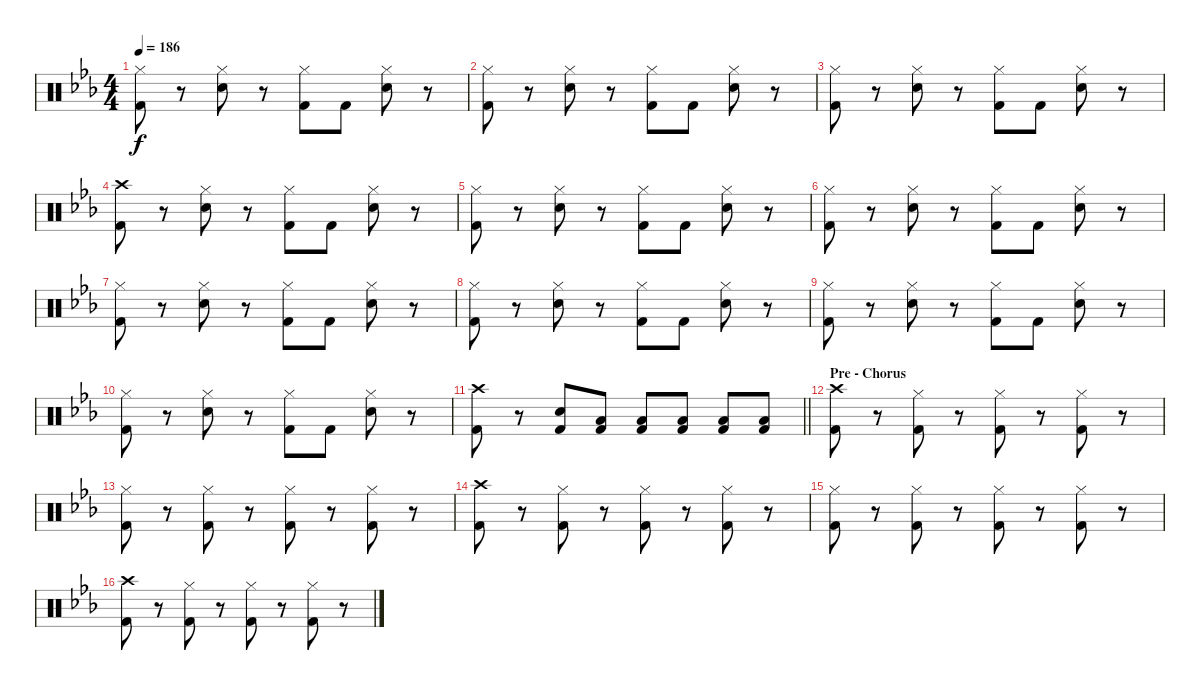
\track "" {instrument percussion}
\staff {score}
\articulation defaults
\ts (4 4)
\tempo 186
\clef neutral
\ks eb
("Hi-Hat (closed)" "Kick (hit) 2").8{dy f} r.8 ("Hi-Hat (closed)" "Snare (hit) 2").8 r.8 ("Hi-Hat (closed)" "Kick (hit) 2").8 "Kick (hit) 2".8 ("Hi-Hat (closed)" "Snare (hit) 2").8 r.8 |
("Hi-Hat (closed)" "Kick (hit) 2").8 r.8 ("Hi-Hat (closed)" "Snare (hit) 2").8 r.8 ("Hi-Hat (closed)" "Kick (hit) 2").8 "Kick (hit) 2".8 ("Hi-Hat (closed)" "Snare (hit) 2").8 r.8 |
("Hi-Hat (closed)" "Kick (hit) 2").8 r.8 ("Hi-Hat (closed)" "Snare (hit) 2").8 r.8 ("Hi-Hat (closed)" "Kick (hit) 2").8 "Kick (hit) 2".8 ("Hi-Hat (closed)" "Snare (hit) 2").8 r.8 |
("Crash high (hit)" "Kick (hit) 2").8 r.8 ("Hi-Hat (closed)" "Snare (hit) 2").8 r.8 ("Hi-Hat (closed)" "Kick (hit) 2").8 "Kick (hit) 2".8 ("Hi-Hat (closed)" "Snare (hit) 2").8 r.8 |
("Hi-Hat (closed)" "Kick (hit) 2").8 r.8 ("Hi-Hat (closed)" "Snare (hit) 2").8 r.8 ("Hi-Hat (closed)" "Kick (hit) 2").8 "Kick (hit) 2".8 ("Hi-Hat (closed)" "Snare (hit) 2").8 r.8 |
("Hi-Hat (closed)" "Kick (hit) 2").8 r.8 ("Hi-Hat (closed)" "Snare (hit) 2").8 r.8 ("Hi-Hat (closed)" "Kick (hit) 2").8 "Kick (hit) 2".8 ("Hi-Hat (closed)" "Snare (hit) 2").8 r.8 |
("Hi-Hat (closed)" "Kick (hit) 2").8 r.8 ("Hi-Hat (closed)" "Snare (hit) 2").8 r.8 ("Hi-Hat (closed)" "Kick (hit) 2").8 "Kick (hit) 2".8 ("Hi-Hat (closed)" "Snare (hit) 2").8 r.8 |
("Hi-Hat (closed)" "Kick (hit) 2").8 r.8 ("Hi-Hat (closed)" "Snare (hit) 2").8 r.8 ("Hi-Hat (closed)" "Kick (hit) 2").8 "Kick (hit) 2".8 ("Hi-Hat (closed)" "Snare (hit) 2").8 r.8 |
("Hi-Hat (closed)" "Kick (hit) 2").8 r.8 ("Hi-Hat (closed)" "Snare (hit) 2").8 r.8 ("Hi-Hat (closed)" "Kick (hit) 2").8 "Kick (hit) 2".8 ("Hi-Hat (closed)" "Snare (hit) 2").8 r.8 |
("Hi-Hat (closed)" "Kick (hit) 2").8 r.8 ("Hi-Hat (closed)" "Snare (hit) 2").8 r.8 ("Hi-Hat (closed)" "Kick (hit) 2").8 "Kick (hit) 2".8 ("Hi-Hat (closed)" "Snare (hit) 2").8 r.8 |
\barLineRight lightlight
("Crash high (hit)" "Kick (hit) 2").8 r.8 ("Snare (hit) 2" "Kick (hit) 2").8 ("Low Tom (hit)" "Kick (hit) 2").8 ("Low Tom (hit)" "Kick (hit) 2").8 ("Low Tom (hit)" "Kick (hit) 2").8 ("Low Tom (hit)" "Kick (hit) 2").8 ("Low Tom (hit)" "Kick (hit) 2").8 |
\section ("" "Pre - Chorus")
("Crash high (hit)" "Kick (hit) 2").8 r.8 ("Hi-Hat (closed)" "Kick (hit) 2").8 r.8 ("Hi-Hat (closed)" "Kick (hit) 2").8 r.8 ("Hi-Hat (closed)" "Kick (hit) 2").8 r.8 |
("Hi-Hat (closed)" "Kick (hit) 2").8 r.8 ("Hi-Hat (closed)" "Kick (hit) 2").8 r.8 ("Hi-Hat (closed)" "Kick (hit) 2").8 r.8 ("Hi-Hat (closed)" "Kick (hit) 2").8 r.8 |
("Crash high (hit)" "Kick (hit) 2").8 r.8 ("Hi-Hat (closed)" "Kick (hit) 2").8 r.8 ("Hi-Hat (closed)" "Kick (hit) 2").8 r.8 ("Hi-Hat (closed)" "Kick (hit) 2").8 r.8 |
("Hi-Hat (closed)" "Kick (hit) 2").8 r.8 ("Hi-Hat (closed)" "Kick (hit) 2").8 r.8 ("Hi-Hat (closed)" "Kick (hit) 2").8 r.8 ("Hi-Hat (closed)" "Kick (hit) 2").8 r.8 |
("Crash high (hit)" "Kick (hit) 2").8 r.8 ("Hi-Hat (closed)" "Kick (hit) 2").8 r.8 ("Hi-Hat (closed)" "Kick (hit) 2").8 r.8 ("Hi-Hat (closed)" "Kick (hit) 2").8 r.8
